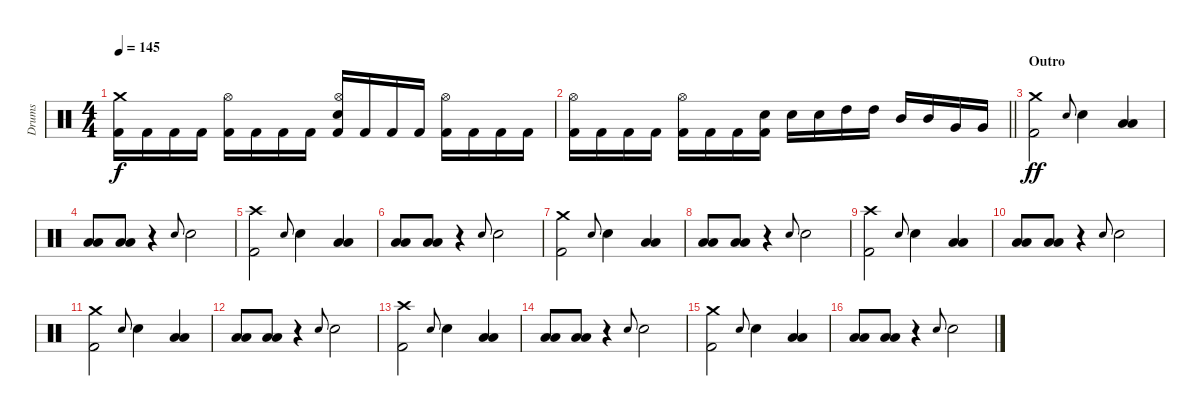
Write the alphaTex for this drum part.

\track ("Drums" "Drums") {instrument percussion}
\staff {score}
\articulation defaults
\ts (4 4)
\tempo 145
\clef neutral
\ks c
("Crash medium (hit)" "Kick (hit) 2").16{dy f} "Kick (hit) 2".16 "Kick (hit) 2".16 "Kick (hit) 2".16 ("Hi-Hat (open)" "Kick (hit) 2").16 "Kick (hit) 2".16 "Kick (hit) 2".16 "Kick (hit) 2".16 ("Hi-Hat (open)" "Electric Snare (hit)" "Kick (hit) 2").16 "Kick (hit) 2".16 "Kick (hit) 2".16 "Kick (hit) 2".16 ("Hi-Hat (open)" "Kick (hit) 2").16 "Kick (hit) 2".16 "Kick (hit) 2".16 "Kick (hit) 2".16 |
\barLineRight lightlight
("Hi-Hat (open)" "Kick (hit) 2").16 "Kick (hit) 2".16 "Kick (hit) 2".16 "Kick (hit) 2".16 ("Hi-Hat (open)" "Kick (hit) 2").16 "Kick (hit) 2".16 "Kick (hit) 2".16 ("Electric Snare (hit)" "Kick (hit) 2").16 "Electric Snare (hit)".16 "Electric Snare (hit)".16 "High Tom (hit)".16 "High Tom (hit)".16 "Mid Tom (hit)".16 "Mid Tom (hit)".16 "Very Low Tom (hit)".16 "Very Low Tom (hit)".16 |
\section ("" "Outro")
("Crash medium (hit)" "Kick (hit) 2").2{dy ff} "Electric Snare (hit)".8{gr onbeat} "Electric Snare (hit)".4 ("Low Tom (hit)" "Low Floor Tom (hit)").4 |
("Low Tom (hit)" "Low Floor Tom (hit)").8 ("Low Tom (hit)" "Low Floor Tom (hit)").8 r.4 "Electric Snare (hit)".8{gr onbeat} "Electric Snare (hit)".2 |
("Crash high (hit)" "Kick (hit) 2").2 "Electric Snare (hit)".8{gr onbeat} "Electric Snare (hit)".4 ("Low Tom (hit)" "Low Floor Tom (hit)").4 |
("Low Tom (hit)" "Low Floor Tom (hit)").8 ("Low Tom (hit)" "Low Floor Tom (hit)").8 r.4 "Electric Snare (hit)".8{gr onbeat} "Electric Snare (hit)".2 |
("Crash medium (hit)" "Kick (hit) 2").2 "Electric Snare (hit)".8{gr onbeat} "Electric Snare (hit)".4 ("Low Tom (hit)" "Low Floor Tom (hit)").4 |
("Low Tom (hit)" "Low Floor Tom (hit)").8 ("Low Tom (hit)" "Low Floor Tom (hit)").8 r.4 "Electric Snare (hit)".8{gr onbeat} "Electric Snare (hit)".2 |
("Crash high (hit)" "Kick (hit) 2").2 "Electric Snare (hit)".8{gr onbeat} "Electric Snare (hit)".4 ("Low Tom (hit)" "Low Floor Tom (hit)").4 |
("Low Tom (hit)" "Low Floor Tom (hit)").8 ("Low Tom (hit)" "Low Floor Tom (hit)").8 r.4 "Electric Snare (hit)".8{gr onbeat} "Electric Snare (hit)".2 |
("Crash medium (hit)" "Kick (hit) 2").2 "Electric Snare (hit)".8{gr onbeat} "Electric Snare (hit)".4 ("Low Tom (hit)" "Low Floor Tom (hit)").4 |
("Low Tom (hit)" "Low Floor Tom (hit)").8 ("Low Tom (hit)" "Low Floor Tom (hit)").8 r.4 "Electric Snare (hit)".8{gr onbeat} "Electric Snare (hit)".2 |
("Crash high (hit)" "Kick (hit) 2").2 "Electric Snare (hit)".8{gr onbeat} "Electric Snare (hit)".4 ("Low Tom (hit)" "Low Floor Tom (hit)").4 |
("Low Tom (hit)" "Low Floor Tom (hit)").8 ("Low Tom (hit)" "Low Floor Tom (hit)").8 r.4 "Electric Snare (hit)".8{gr onbeat} "Electric Snare (hit)".2 |
("Crash medium (hit)" "Kick (hit) 2").2 "Electric Snare (hit)".8{gr onbeat} "Electric Snare (hit)".4 ("Low Tom (hit)" "Low Floor Tom (hit)").4 |
("Low Tom (hit)" "Low Floor Tom (hit)").8 ("Low Tom (hit)" "Low Floor Tom (hit)").8 r.4 "Electric Snare (hit)".8{gr onbeat} "Electric Snare (hit)".2
